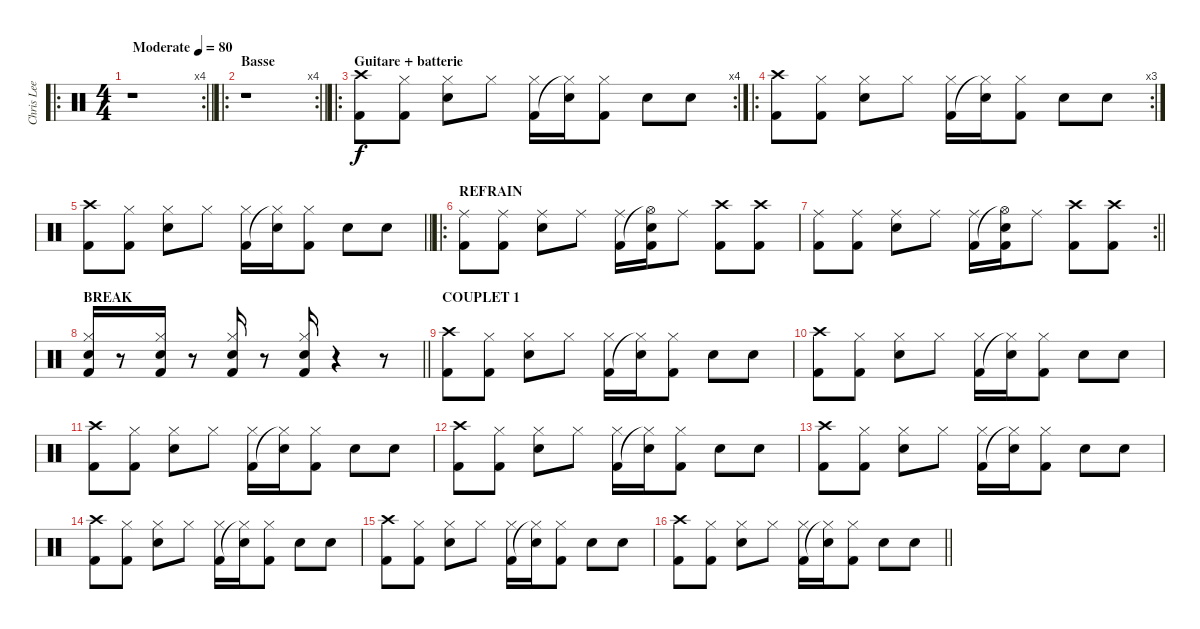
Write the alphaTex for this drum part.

\track ("Chris Lee" "Chris Lee") {instrument percussion}
\staff {score}
\articulation defaults
\ro
\rc 4
\ts (4 4)
\tempo (80 "Moderate")
\clef neutral
\barLineRight lightlight
\ks c
r.1{dy f} |
\ro
\rc 4
\section ("" "Basse")
\barLineRight lightlight
r.1 |
\ro
\rc 4
\section ("" "Guitare + batterie")
("Crash high (hit)" "Kick (hit) 2").8 ("Hi-Hat (closed)" "Kick (hit) 2").8 ("Snare (hit) 2" "Hi-Hat (closed)").8 "Hi-Hat (closed)".8 ("Hi-Hat (closed)" "Kick (hit) 2").16 ("Snare (hit) 2" "Hi-Hat (closed)"{t}).16 ("Hi-Hat (closed)" "Kick (hit) 2").8 "Snare (hit) 2".8 "Snare (hit) 2".8 |
\ro
\rc 3
("Crash high (hit)" "Kick (hit) 2").8 ("Hi-Hat (closed)" "Kick (hit) 2").8 ("Snare (hit) 2" "Hi-Hat (closed)").8 "Hi-Hat (closed)".8 ("Hi-Hat (closed)" "Kick (hit) 2").16 ("Snare (hit) 2" "Hi-Hat (closed)"{t}).16 ("Hi-Hat (closed)" "Kick (hit) 2").8 "Snare (hit) 2".8 "Snare (hit) 2".8 |
\barLineRight lightlight
("Crash high (hit)" "Kick (hit) 2").8 ("Hi-Hat (closed)" "Kick (hit) 2").8 ("Snare (hit) 2" "Hi-Hat (closed)").8 "Hi-Hat (closed)".8 ("Hi-Hat (closed)" "Kick (hit) 2").16 ("Snare (hit) 2" "Hi-Hat (closed)"{t}).16 ("Hi-Hat (closed)" "Kick (hit) 2").8 "Snare (hit) 2".8 "Snare (hit) 2".8 |
\ro
\section ("" "REFRAIN")
("Ride (middle)" "Kick (hit) 2").8 ("Ride (middle)" "Kick (hit) 2").8 ("Snare (hit) 2" "Ride (middle)").8 "Ride (middle)".8 ("Ride (middle)" "Kick (hit) 2").16 ("Snare (hit) 2" "Hi-Hat (open)"{t} "Kick (hit) 2").16 "Ride (middle)".8 ("Crash high (hit)" "Kick (hit) 2").8 ("Crash high (hit)" "Kick (hit) 2").8 |
\rc 2
\barLineRight lightlight
("Ride (middle)" "Kick (hit) 2").8 ("Ride (middle)" "Kick (hit) 2").8 ("Snare (hit) 2" "Ride (middle)").8 "Ride (middle)".8 ("Ride (middle)" "Kick (hit) 2").16 ("Snare (hit) 2" "Hi-Hat (open)"{t} "Kick (hit) 2").16 "Ride (middle)".8 ("Crash high (hit)" "Kick (hit) 2").8 ("Crash high (hit)" "Kick (hit) 2").8 |
\section ("" "BREAK")
\barLineRight lightlight
("Snare (hit) 2" "Hi-Hat (closed)" "Kick (hit) 2").16 r.8 ("Snare (hit) 2" "Hi-Hat (closed)" "Kick (hit) 2").16 r.8 ("Snare (hit) 2" "Hi-Hat (closed)" "Kick (hit) 2").16 r.8 ("Snare (hit) 2" "Hi-Hat (closed)" "Kick (hit) 2").16 r.4 r.8 |
\section ("" "COUPLET 1")
("Crash high (hit)" "Kick (hit) 2").8 ("Hi-Hat (closed)" "Kick (hit) 2").8 ("Snare (hit) 2" "Hi-Hat (closed)").8 "Hi-Hat (closed)".8 ("Hi-Hat (closed)" "Kick (hit) 2").16 ("Snare (hit) 2" "Hi-Hat (closed)"{t}).16 ("Hi-Hat (closed)" "Kick (hit) 2").8 "Snare (hit) 2".8 "Snare (hit) 2".8 |
("Crash high (hit)" "Kick (hit) 2").8 ("Hi-Hat (closed)" "Kick (hit) 2").8 ("Snare (hit) 2" "Hi-Hat (closed)").8 "Hi-Hat (closed)".8 ("Hi-Hat (closed)" "Kick (hit) 2").16 ("Snare (hit) 2" "Hi-Hat (closed)"{t}).16 ("Hi-Hat (closed)" "Kick (hit) 2").8 "Snare (hit) 2".8 "Snare (hit) 2".8 |
("Crash high (hit)" "Kick (hit) 2").8 ("Hi-Hat (closed)" "Kick (hit) 2").8 ("Snare (hit) 2" "Hi-Hat (closed)").8 "Hi-Hat (closed)".8 ("Hi-Hat (closed)" "Kick (hit) 2").16 ("Snare (hit) 2" "Hi-Hat (closed)"{t}).16 ("Hi-Hat (closed)" "Kick (hit) 2").8 "Snare (hit) 2".8 "Snare (hit) 2".8 |
("Crash high (hit)" "Kick (hit) 2").8 ("Hi-Hat (closed)" "Kick (hit) 2").8 ("Snare (hit) 2" "Hi-Hat (closed)").8 "Hi-Hat (closed)".8 ("Hi-Hat (closed)" "Kick (hit) 2").16 ("Snare (hit) 2" "Hi-Hat (closed)"{t}).16 ("Hi-Hat (closed)" "Kick (hit) 2").8 "Snare (hit) 2".8 "Snare (hit) 2".8 |
("Crash high (hit)" "Kick (hit) 2").8 ("Hi-Hat (closed)" "Kick (hit) 2").8 ("Snare (hit) 2" "Hi-Hat (closed)").8 "Hi-Hat (closed)".8 ("Hi-Hat (closed)" "Kick (hit) 2").16 ("Snare (hit) 2" "Hi-Hat (closed)"{t}).16 ("Hi-Hat (closed)" "Kick (hit) 2").8 "Snare (hit) 2".8 "Snare (hit) 2".8 |
("Crash high (hit)" "Kick (hit) 2").8 ("Hi-Hat (closed)" "Kick (hit) 2").8 ("Snare (hit) 2" "Hi-Hat (closed)").8 "Hi-Hat (closed)".8 ("Hi-Hat (closed)" "Kick (hit) 2").16 ("Snare (hit) 2" "Hi-Hat (closed)"{t}).16 ("Hi-Hat (closed)" "Kick (hit) 2").8 "Snare (hit) 2".8 "Snare (hit) 2".8 |
("Crash high (hit)" "Kick (hit) 2").8 ("Hi-Hat (closed)" "Kick (hit) 2").8 ("Snare (hit) 2" "Hi-Hat (closed)").8 "Hi-Hat (closed)".8 ("Hi-Hat (closed)" "Kick (hit) 2").16 ("Snare (hit) 2" "Hi-Hat (closed)"{t}).16 ("Hi-Hat (closed)" "Kick (hit) 2").8 "Snare (hit) 2".8 "Snare (hit) 2".8 |
\barLineRight lightlight
("Crash high (hit)" "Kick (hit) 2").8 ("Hi-Hat (closed)" "Kick (hit) 2").8 ("Snare (hit) 2" "Hi-Hat (closed)").8 "Hi-Hat (closed)".8 ("Hi-Hat (closed)" "Kick (hit) 2").16 ("Snare (hit) 2" "Hi-Hat (closed)"{t}).16 ("Hi-Hat (closed)" "Kick (hit) 2").8 "Snare (hit) 2".8 "Snare (hit) 2".8
